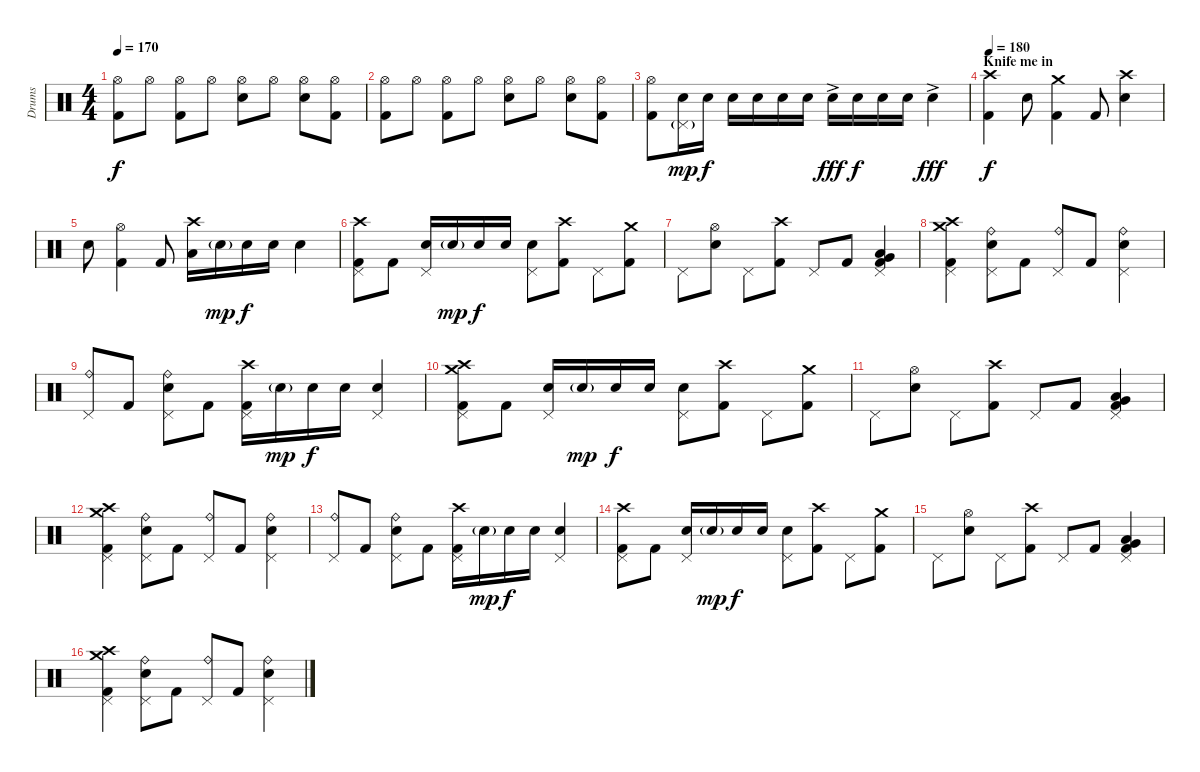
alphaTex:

\track ("Drums" "Drums") {instrument percussion}
\staff {score}
\articulation defaults
\ts (4 4)
\tempo 170
\clef neutral
\ks c
("Hi-Hat (open)" "Kick (hit) 2").8{dy f} "Hi-Hat (open)".8 ("Hi-Hat (open)" "Kick (hit) 2").8 "Hi-Hat (open)".8 ("Hi-Hat (open)" "Snare (hit) 2").8 "Hi-Hat (open)".8 ("Hi-Hat (open)" "Snare (hit) 2").8 ("Hi-Hat (open)" "Kick (hit) 2").8 |
("Hi-Hat (open)" "Kick (hit) 2").8 "Hi-Hat (open)".8 ("Hi-Hat (open)" "Kick (hit) 2").8 "Hi-Hat (open)".8 ("Hi-Hat (open)" "Snare (hit) 2").8 "Hi-Hat (open)".8 ("Hi-Hat (open)" "Snare (hit) 2").8 ("Hi-Hat (open)" "Kick (hit) 2").8 |
("Hi-Hat (open)" "Kick (hit) 2").8 ("Pedal Hi-Hat (hit)"{g} "Snare (hit) 2").16{dy mp} "Snare (hit) 2".16{dy f} "Snare (hit) 2".16 "Snare (hit) 2".16 "Snare (hit) 2".16 "Snare (hit) 2".16 "Snare (hit) 2"{ac}.16{dy fff} "Snare (hit) 2".16{dy f} "Snare (hit) 2".16 "Snare (hit) 2".16 "Snare (hit) 2"{ac}.4{dy fff} |
\section ("" "Knife me in")
\tempo 180
("Crash high (hit)" "Kick (hit) 2").4{dy f} "Snare (hit) 2".8 ("Crash medium (hit)" "Kick (hit) 2").4 "Kick (hit) 2".8 ("Crash high (hit)" "Snare (hit) 2").4 |
"Snare (hit) 2".8 ("Hi-Hat (open)" "Kick (hit) 2").4 "Kick (hit) 2".8 ("Crash high (hit)" "Low Floor Tom (hit)").16 "Snare (hit) 2"{g}.16{dy mp} "Snare (hit) 2".16{dy f} "Snare (hit) 2".16 "Snare (hit) 2".4 |
("Crash high (hit)" "Pedal Hi-Hat (hit)" "Kick (hit) 2").8 "Kick (hit) 2".8 ("Pedal Hi-Hat (hit)" "Snare (hit) 2").16 "Snare (hit) 2"{g}.16{dy mp} "Snare (hit) 2".16{dy f} "Snare (hit) 2".16 ("Pedal Hi-Hat (hit)" "Snare (hit) 2").8 ("Crash high (hit)" "Kick (hit) 2").8 "Pedal Hi-Hat (hit)".8 ("Crash medium (hit)" "Kick (hit) 2").8 |
"Pedal Hi-Hat (hit)".8 ("Hi-Hat (open)" "Snare (hit) 2").8 "Pedal Hi-Hat (hit)".8 ("Crash high (hit)" "Kick (hit) 2").8 "Pedal Hi-Hat (hit)".8 "Kick (hit) 2".8 ("Pedal Hi-Hat (hit)" "Very Low Tom (hit)" "Low Floor Tom (hit)" "Kick (hit) 2").4 |
("Crash high (hit)" "Pedal Hi-Hat (hit)" "Crash medium (hit)" "Kick (hit) 2").4 ("Ride (bell)" "Pedal Hi-Hat (hit)" "Snare (hit) 2").8 "Kick (hit) 2".8 ("Ride (bell)" "Pedal Hi-Hat (hit)").8 "Kick (hit) 2".8 ("Ride (bell)" "Pedal Hi-Hat (hit)" "Snare (hit) 2").4 |
("Ride (bell)" "Pedal Hi-Hat (hit)").8 "Kick (hit) 2".8 ("Ride (bell)" "Pedal Hi-Hat (hit)" "Snare (hit) 2").8 "Kick (hit) 2".8 ("Crash high (hit)" "Pedal Hi-Hat (hit)" "Kick (hit) 2").16 "Snare (hit) 2"{g}.16{dy mp} "Snare (hit) 2".16{dy f} "Snare (hit) 2".16 ("Pedal Hi-Hat (hit)" "Snare (hit) 2").4 |
("Crash high (hit)" "Pedal Hi-Hat (hit)" "Crash medium (hit)" "Kick (hit) 2").8 "Kick (hit) 2".8 ("Pedal Hi-Hat (hit)" "Snare (hit) 2").16 "Snare (hit) 2"{g}.16{dy mp} "Snare (hit) 2".16{dy f} "Snare (hit) 2".16 ("Pedal Hi-Hat (hit)" "Snare (hit) 2").8 ("Crash high (hit)" "Kick (hit) 2").8 "Pedal Hi-Hat (hit)".8 ("Crash medium (hit)" "Kick (hit) 2").8 |
"Pedal Hi-Hat (hit)".8 ("Hi-Hat (open)" "Snare (hit) 2").8 "Pedal Hi-Hat (hit)".8 ("Crash high (hit)" "Kick (hit) 2").8 "Pedal Hi-Hat (hit)".8 "Kick (hit) 2".8 ("Pedal Hi-Hat (hit)" "Very Low Tom (hit)" "Low Floor Tom (hit)" "Kick (hit) 2").4 |
("Crash high (hit)" "Pedal Hi-Hat (hit)" "Crash medium (hit)" "Kick (hit) 2").4 ("Ride (bell)" "Pedal Hi-Hat (hit)" "Snare (hit) 2").8 "Kick (hit) 2".8 ("Ride (bell)" "Pedal Hi-Hat (hit)").8 "Kick (hit) 2".8 ("Ride (bell)" "Pedal Hi-Hat (hit)" "Snare (hit) 2").4 |
("Ride (bell)" "Pedal Hi-Hat (hit)").8 "Kick (hit) 2".8 ("Ride (bell)" "Pedal Hi-Hat (hit)" "Snare (hit) 2").8 "Kick (hit) 2".8 ("Crash high (hit)" "Pedal Hi-Hat (hit)" "Kick (hit) 2").16 "Snare (hit) 2"{g}.16{dy mp} "Snare (hit) 2".16{dy f} "Snare (hit) 2".16 ("Pedal Hi-Hat (hit)" "Snare (hit) 2").4 |
("Crash high (hit)" "Pedal Hi-Hat (hit)" "Kick (hit) 2").8 "Kick (hit) 2".8 ("Pedal Hi-Hat (hit)" "Snare (hit) 2").16 "Snare (hit) 2"{g}.16{dy mp} "Snare (hit) 2".16{dy f} "Snare (hit) 2".16 ("Pedal Hi-Hat (hit)" "Snare (hit) 2").8 ("Crash high (hit)" "Kick (hit) 2").8 "Pedal Hi-Hat (hit)".8 ("Crash medium (hit)" "Kick (hit) 2").8 |
"Pedal Hi-Hat (hit)".8 ("Hi-Hat (open)" "Snare (hit) 2").8 "Pedal Hi-Hat (hit)".8 ("Crash high (hit)" "Kick (hit) 2").8 "Pedal Hi-Hat (hit)".8 "Kick (hit) 2".8 ("Pedal Hi-Hat (hit)" "Very Low Tom (hit)" "Low Floor Tom (hit)" "Kick (hit) 2").4 |
("Crash high (hit)" "Pedal Hi-Hat (hit)" "Crash medium (hit)" "Kick (hit) 2").4 ("Ride (bell)" "Pedal Hi-Hat (hit)" "Snare (hit) 2").8 "Kick (hit) 2".8 ("Ride (bell)" "Pedal Hi-Hat (hit)").8 "Kick (hit) 2".8 ("Ride (bell)" "Pedal Hi-Hat (hit)" "Snare (hit) 2").4
